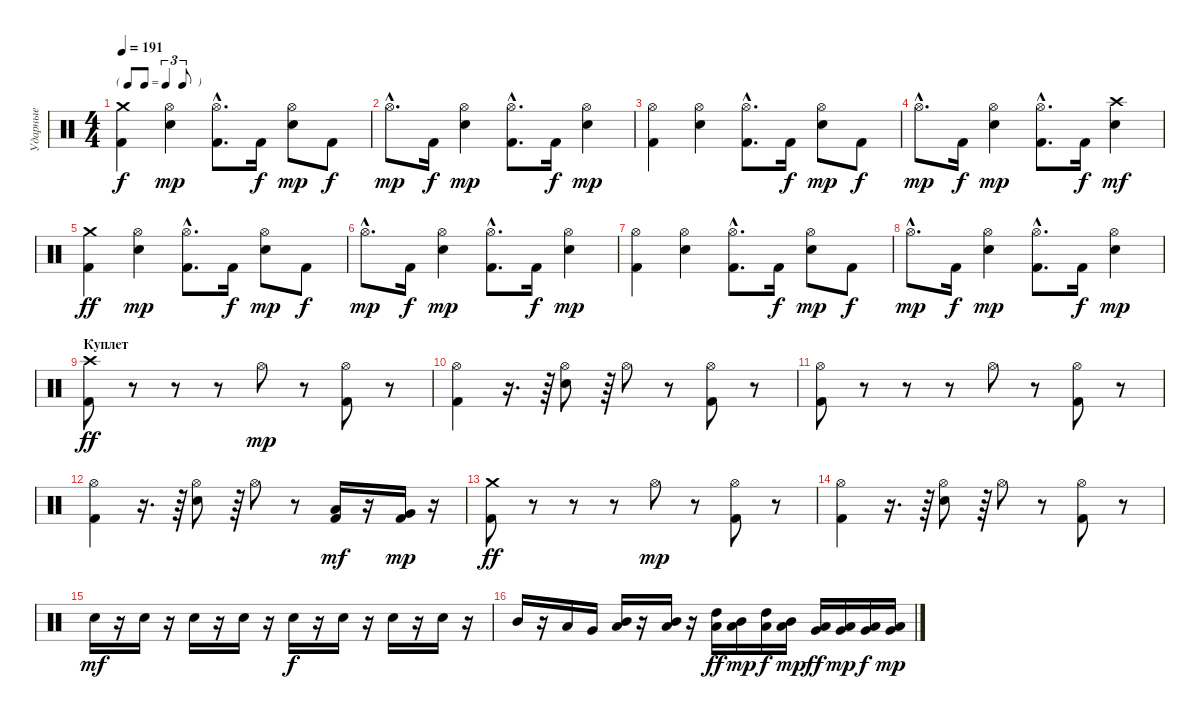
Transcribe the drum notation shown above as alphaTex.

\track ("Ударные" "Ударные") {instrument percussion}
\staff {score}
\articulation defaults
\ts (4 4)
\tf triplet8th
\tempo 191
\clef neutral
\ks c
("Crash medium (hit)" "Kick (hit) 2").4{dy f} ("Snare (hit) 2" "Hi-Hat (open)").4{dy mp} ("Kick (hit) 2"{hac} "Hi-Hat (open)"{hac}).8{d} "Kick (hit) 2".16{dy f} ("Snare (hit) 2" "Hi-Hat (open)").8{dy mp} "Kick (hit) 2".8{dy f} |
"Hi-Hat (open)"{hac}.8{d dy mp} "Kick (hit) 2".16{dy f} ("Snare (hit) 2" "Hi-Hat (open)").4{dy mp} ("Kick (hit) 2"{hac} "Hi-Hat (open)"{hac}).8{d} "Kick (hit) 2".16{dy f} ("Snare (hit) 2" "Hi-Hat (open)").4{dy mp} |
("Kick (hit) 2" "Hi-Hat (open)").4 ("Snare (hit) 2" "Hi-Hat (open)").4 ("Kick (hit) 2"{hac} "Hi-Hat (open)"{hac}).8{d} "Kick (hit) 2".16{dy f} ("Snare (hit) 2" "Hi-Hat (open)").8{dy mp} "Kick (hit) 2".8{dy f} |
"Hi-Hat (open)"{hac}.8{d dy mp} "Kick (hit) 2".16{dy f} ("Snare (hit) 2" "Hi-Hat (open)").4{dy mp} ("Kick (hit) 2"{hac} "Hi-Hat (open)"{hac}).8{d} "Kick (hit) 2".16{dy f} ("Crash high (hit)" "Snare (hit) 2").4{dy mf} |
("Crash medium (hit)" "Kick (hit) 2").4{dy ff} ("Snare (hit) 2" "Hi-Hat (open)").4{dy mp} ("Kick (hit) 2"{hac} "Hi-Hat (open)"{hac}).8{d} "Kick (hit) 2".16{dy f} ("Snare (hit) 2" "Hi-Hat (open)").8{dy mp} "Kick (hit) 2".8{dy f} |
"Hi-Hat (open)"{hac}.8{d dy mp} "Kick (hit) 2".16{dy f} ("Snare (hit) 2" "Hi-Hat (open)").4{dy mp} ("Kick (hit) 2"{hac} "Hi-Hat (open)"{hac}).8{d} "Kick (hit) 2".16{dy f} ("Snare (hit) 2" "Hi-Hat (open)").4{dy mp} |
("Kick (hit) 2" "Hi-Hat (open)").4 ("Snare (hit) 2" "Hi-Hat (open)").4 ("Kick (hit) 2"{hac} "Hi-Hat (open)"{hac}).8{d} "Kick (hit) 2".16{dy f} ("Snare (hit) 2" "Hi-Hat (open)").8{dy mp} "Kick (hit) 2".8{dy f} |
"Hi-Hat (open)"{hac}.8{d dy mp} "Kick (hit) 2".16{dy f} ("Snare (hit) 2" "Hi-Hat (open)").4{dy mp} ("Kick (hit) 2"{hac} "Hi-Hat (open)"{hac}).8{d} "Kick (hit) 2".16{dy f} ("Snare (hit) 2" "Hi-Hat (open)").4{dy mp} |
\section ("" "Куплет")
("Crash high (hit)" "Kick (hit) 2").8{dy ff} r.8 r.8 r.8 "Hi-Hat (open)".8{dy mp} r.8 ("Hi-Hat (open)" "Kick (hit) 2").8 r.8 |
("Hi-Hat (open)" "Kick (hit) 2").4 r.16{d} r.64 ("Snare (hit) 2" "Hi-Hat (open)").8 r.64 "Hi-Hat (open)".8 r.8 ("Hi-Hat (open)" "Kick (hit) 2").8 r.8 |
("Hi-Hat (open)" "Kick (hit) 2").8 r.8 r.8 r.8 "Hi-Hat (open)".8 r.8 ("Hi-Hat (open)" "Kick (hit) 2").8 r.8 |
("Hi-Hat (open)" "Kick (hit) 2").4 r.16{d} r.64 ("Snare (hit) 2" "Hi-Hat (open)").8 r.64 "Hi-Hat (open)".8 r.8 ("Low Tom (hit)" "Kick (hit) 2").16{dy mf} r.16 ("Very Low Tom (hit)" "Kick (hit) 2").16{dy mp} r.16 |
("Crash medium (hit)" "Kick (hit) 2").8{dy ff} r.8 r.8 r.8 "Hi-Hat (open)".8{dy mp} r.8 ("Hi-Hat (open)" "Kick (hit) 2").8 r.8 |
("Hi-Hat (open)" "Kick (hit) 2").4 r.16{d} r.64 ("Snare (hit) 2" "Hi-Hat (open)").8 r.64 "Hi-Hat (open)".8 r.8 ("Hi-Hat (open)" "Kick (hit) 2").8 r.8 |
"Snare (hit) 2".16{dy mf} r.16 "Snare (hit) 2".16 r.16 "Snare (hit) 2".16 r.16 "Snare (hit) 2".16 r.16 "Snare (hit) 2".16{dy f} r.16 "Snare (hit) 2".16 r.16 "Snare (hit) 2".16 r.16 "Snare (hit) 2".16 r.16 |
"Mid Tom (hit)".16 r.16 "Low Tom (hit)".16 "Very Low Tom (hit)".16 ("Mid Tom (hit)" "Low Tom (hit)").16 r.16 ("Mid Tom (hit)" "Low Tom (hit)").16 r.16 ("High Tom (hit)" "Low Tom (hit)").16{dy ff} ("Mid Tom (hit)" "Low Tom (hit)").16{dy mp} ("High Tom (hit)" "Low Tom (hit)").16{dy f} ("Mid Tom (hit)" "Low Tom (hit)").16{dy mp} ("Low Tom (hit)" "Very Low Tom (hit)").16{dy ff} ("Low Tom (hit)" "Very Low Tom (hit)").16{dy mp} ("Low Tom (hit)" "Very Low Tom (hit)").16{dy f} ("Low Tom (hit)" "Very Low Tom (hit)").16{dy mp}
